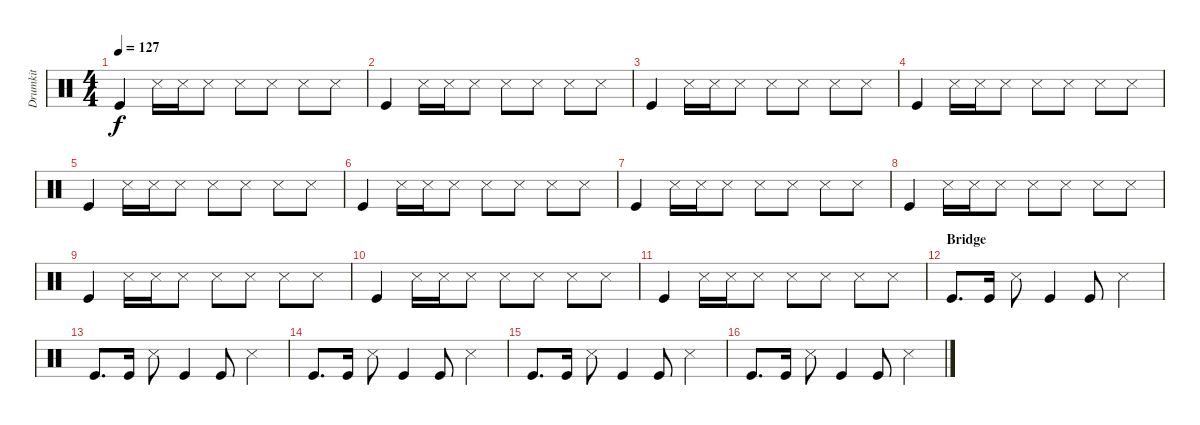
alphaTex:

\track ("Drumkit" "Drumkit") {instrument percussion}
\staff {score}
\articulation defaults
\ts (4 4)
\tempo 127
\clef neutral
\ks c "Kick (hit)".4{dy f} "Snare (side stick) 3".16 "Snare (side stick) 3".16 "Snare (side stick) 3".8 "Snare (side stick) 3".8 "Snare (side stick) 3".8 "Snare (side stick) 3".8 "Snare (side stick) 3".8
|
"Kick (hit)".4 "Snare (side stick) 3".16 "Snare (side stick) 3".16 "Snare (side stick) 3".8 "Snare (side stick) 3".8 "Snare (side stick) 3".8 "Snare (side stick) 3".8 "Snare (side stick) 3".8 |
"Kick (hit)".4 "Snare (side stick) 3".16 "Snare (side stick) 3".16 "Snare (side stick) 3".8 "Snare (side stick) 3".8 "Snare (side stick) 3".8 "Snare (side stick) 3".8 "Snare (side stick) 3".8 |
"Kick (hit)".4 "Snare (side stick) 3".16 "Snare (side stick) 3".16 "Snare (side stick) 3".8 "Snare (side stick) 3".8 "Snare (side stick) 3".8 "Snare (side stick) 3".8 "Snare (side stick) 3".8 |
"Kick (hit)".4 "Snare (side stick) 3".16 "Snare (side stick) 3".16 "Snare (side stick) 3".8 "Snare (side stick) 3".8 "Snare (side stick) 3".8 "Snare (side stick) 3".8 "Snare (side stick) 3".8 |
"Kick (hit)".4 "Snare (side stick) 3".16 "Snare (side stick) 3".16 "Snare (side stick) 3".8 "Snare (side stick) 3".8 "Snare (side stick) 3".8 "Snare (side stick) 3".8 "Snare (side stick) 3".8 |
"Kick (hit)".4 "Snare (side stick) 3".16 "Snare (side stick) 3".16 "Snare (side stick) 3".8 "Snare (side stick) 3".8 "Snare (side stick) 3".8 "Snare (side stick) 3".8 "Snare (side stick) 3".8 |
"Kick (hit)".4 "Snare (side stick) 3".16 "Snare (side stick) 3".16 "Snare (side stick) 3".8 "Snare (side stick) 3".8 "Snare (side stick) 3".8 "Snare (side stick) 3".8 "Snare (side stick) 3".8 |
"Kick (hit)".4 "Snare (side stick) 3".16 "Snare (side stick) 3".16 "Snare (side stick) 3".8 "Snare (side stick) 3".8 "Snare (side stick) 3".8 "Snare (side stick) 3".8 "Snare (side stick) 3".8 |
"Kick (hit)".4 "Snare (side stick) 3".16 "Snare (side stick) 3".16 "Snare (side stick) 3".8 "Snare (side stick) 3".8 "Snare (side stick) 3".8 "Snare (side stick) 3".8 "Snare (side stick) 3".8 |
"Kick (hit)".4 "Snare (side stick) 3".16 "Snare (side stick) 3".16 "Snare (side stick) 3".8 "Snare (side stick) 3".8 "Snare (side stick) 3".8 "Snare (side stick) 3".8 "Snare (side stick) 3".8 |
\section ("" "Bridge")
"Kick (hit)".8{d} "Kick (hit)".16 "Snare (side stick) 3".8 "Kick (hit)".4 "Kick (hit)".8 "Snare (side stick) 3".4 |
"Kick (hit)".8{d} "Kick (hit)".16 "Snare (side stick) 3".8 "Kick (hit)".4 "Kick (hit)".8 "Snare (side stick) 3".4 |
"Kick (hit)".8{d} "Kick (hit)".16 "Snare (side stick) 3".8 "Kick (hit)".4 "Kick (hit)".8 "Snare (side stick) 3".4 |
"Kick (hit)".8{d} "Kick (hit)".16 "Snare (side stick) 3".8 "Kick (hit)".4 "Kick (hit)".8 "Snare (side stick) 3".4 |
"Kick (hit)".8{d} "Kick (hit)".16 "Snare (side stick) 3".8 "Kick (hit)".4 "Kick (hit)".8 "Snare (side stick) 3".4
